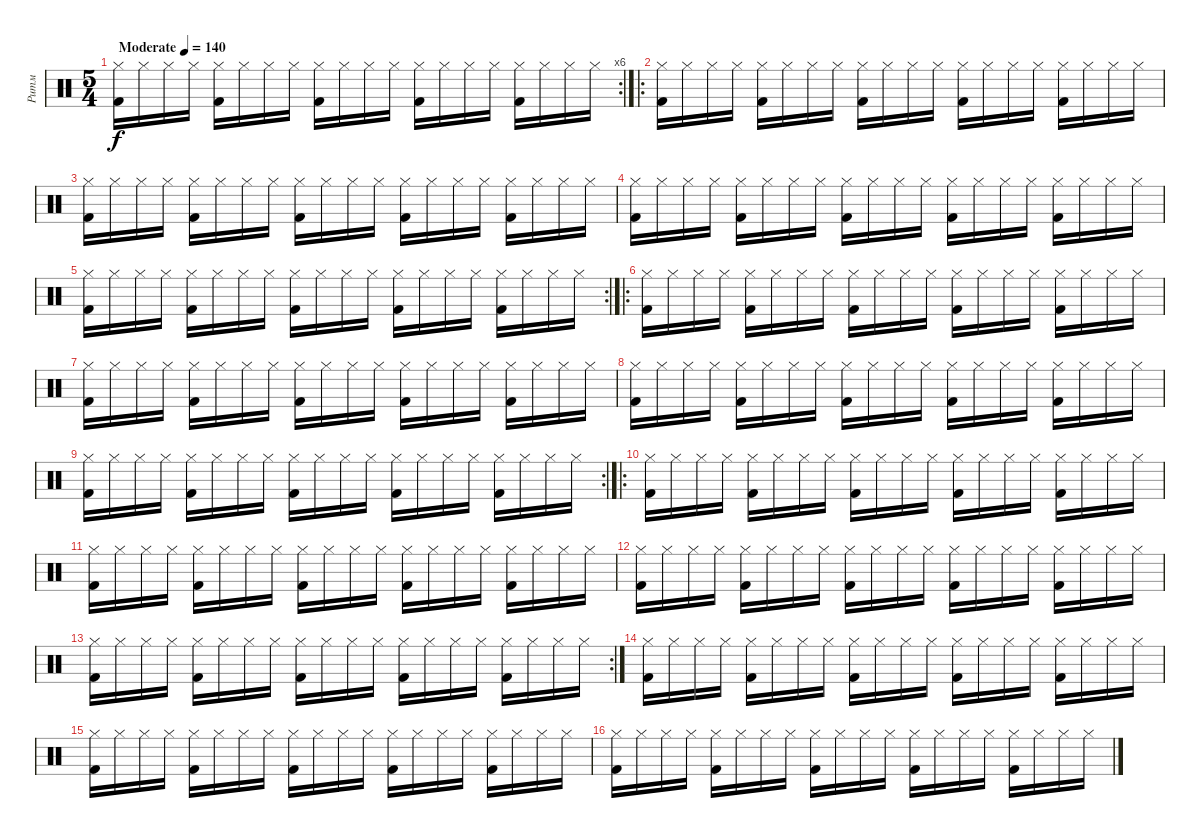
\track ("Ритм" "Ритм") {instrument percussion}
\staff {score}
\articulation defaults
\rc 6
\ts (5 4)
\tempo (140 "Moderate")
\clef neutral
\ks c
("Hi-Hat (closed)" "Kick (hit) 2").16{dy f} "Hi-Hat (closed)".16 "Hi-Hat (closed)".16 "Hi-Hat (closed)".16 ("Hi-Hat (closed)" "Kick (hit) 2").16 "Hi-Hat (closed)".16 "Hi-Hat (closed)".16 "Hi-Hat (closed)".16 ("Hi-Hat (closed)" "Kick (hit) 2").16 "Hi-Hat (closed)".16 "Hi-Hat (closed)".16 "Hi-Hat (closed)".16 ("Hi-Hat (closed)" "Kick (hit) 2").16 "Hi-Hat (closed)".16 "Hi-Hat (closed)".16 "Hi-Hat (closed)".16 ("Hi-Hat (closed)" "Kick (hit) 2").16 "Hi-Hat (closed)".16 "Hi-Hat (closed)".16 "Hi-Hat (closed)".16 |
\ro
("Hi-Hat (closed)" "Kick (hit) 2").16 "Hi-Hat (closed)".16 "Hi-Hat (closed)".16 "Hi-Hat (closed)".16 ("Hi-Hat (closed)" "Kick (hit) 2").16 "Hi-Hat (closed)".16 "Hi-Hat (closed)".16 "Hi-Hat (closed)".16 ("Hi-Hat (closed)" "Kick (hit) 2").16 "Hi-Hat (closed)".16 "Hi-Hat (closed)".16 "Hi-Hat (closed)".16 ("Hi-Hat (closed)" "Kick (hit) 2").16 "Hi-Hat (closed)".16 "Hi-Hat (closed)".16 "Hi-Hat (closed)".16 ("Hi-Hat (closed)" "Kick (hit) 2").16 "Hi-Hat (closed)".16 "Hi-Hat (closed)".16 "Hi-Hat (closed)".16 |
("Hi-Hat (closed)" "Kick (hit) 2").16 "Hi-Hat (closed)".16 "Hi-Hat (closed)".16 "Hi-Hat (closed)".16 ("Hi-Hat (closed)" "Kick (hit) 2").16 "Hi-Hat (closed)".16 "Hi-Hat (closed)".16 "Hi-Hat (closed)".16 ("Hi-Hat (closed)" "Kick (hit) 2").16 "Hi-Hat (closed)".16 "Hi-Hat (closed)".16 "Hi-Hat (closed)".16 ("Hi-Hat (closed)" "Kick (hit) 2").16 "Hi-Hat (closed)".16 "Hi-Hat (closed)".16 "Hi-Hat (closed)".16 ("Hi-Hat (closed)" "Kick (hit) 2").16 "Hi-Hat (closed)".16 "Hi-Hat (closed)".16 "Hi-Hat (closed)".16 |
("Hi-Hat (closed)" "Kick (hit) 2").16 "Hi-Hat (closed)".16 "Hi-Hat (closed)".16 "Hi-Hat (closed)".16 ("Hi-Hat (closed)" "Kick (hit) 2").16 "Hi-Hat (closed)".16 "Hi-Hat (closed)".16 "Hi-Hat (closed)".16 ("Hi-Hat (closed)" "Kick (hit) 2").16 "Hi-Hat (closed)".16 "Hi-Hat (closed)".16 "Hi-Hat (closed)".16 ("Hi-Hat (closed)" "Kick (hit) 2").16 "Hi-Hat (closed)".16 "Hi-Hat (closed)".16 "Hi-Hat (closed)".16 ("Hi-Hat (closed)" "Kick (hit) 2").16 "Hi-Hat (closed)".16 "Hi-Hat (closed)".16 "Hi-Hat (closed)".16 |
\rc 2
("Hi-Hat (closed)" "Kick (hit) 2").16 "Hi-Hat (closed)".16 "Hi-Hat (closed)".16 "Hi-Hat (closed)".16 ("Hi-Hat (closed)" "Kick (hit) 2").16 "Hi-Hat (closed)".16 "Hi-Hat (closed)".16 "Hi-Hat (closed)".16 ("Hi-Hat (closed)" "Kick (hit) 2").16 "Hi-Hat (closed)".16 "Hi-Hat (closed)".16 "Hi-Hat (closed)".16 ("Hi-Hat (closed)" "Kick (hit) 2").16 "Hi-Hat (closed)".16 "Hi-Hat (closed)".16 "Hi-Hat (closed)".16 ("Hi-Hat (closed)" "Kick (hit) 2").16 "Hi-Hat (closed)".16 "Hi-Hat (closed)".16 "Hi-Hat (closed)".16 |
\ro
("Hi-Hat (closed)" "Kick (hit) 2").16 "Hi-Hat (closed)".16 "Hi-Hat (closed)".16 "Hi-Hat (closed)".16 ("Hi-Hat (closed)" "Kick (hit) 2").16 "Hi-Hat (closed)".16 "Hi-Hat (closed)".16 "Hi-Hat (closed)".16 ("Hi-Hat (closed)" "Kick (hit) 2").16 "Hi-Hat (closed)".16 "Hi-Hat (closed)".16 "Hi-Hat (closed)".16 ("Hi-Hat (closed)" "Kick (hit) 2").16 "Hi-Hat (closed)".16 "Hi-Hat (closed)".16 "Hi-Hat (closed)".16 ("Hi-Hat (closed)" "Kick (hit) 2").16 "Hi-Hat (closed)".16 "Hi-Hat (closed)".16 "Hi-Hat (closed)".16 |
("Hi-Hat (closed)" "Kick (hit) 2").16 "Hi-Hat (closed)".16 "Hi-Hat (closed)".16 "Hi-Hat (closed)".16 ("Hi-Hat (closed)" "Kick (hit) 2").16 "Hi-Hat (closed)".16 "Hi-Hat (closed)".16 "Hi-Hat (closed)".16 ("Hi-Hat (closed)" "Kick (hit) 2").16 "Hi-Hat (closed)".16 "Hi-Hat (closed)".16 "Hi-Hat (closed)".16 ("Hi-Hat (closed)" "Kick (hit) 2").16 "Hi-Hat (closed)".16 "Hi-Hat (closed)".16 "Hi-Hat (closed)".16 ("Hi-Hat (closed)" "Kick (hit) 2").16 "Hi-Hat (closed)".16 "Hi-Hat (closed)".16 "Hi-Hat (closed)".16 |
("Hi-Hat (closed)" "Kick (hit) 2").16 "Hi-Hat (closed)".16 "Hi-Hat (closed)".16 "Hi-Hat (closed)".16 ("Hi-Hat (closed)" "Kick (hit) 2").16 "Hi-Hat (closed)".16 "Hi-Hat (closed)".16 "Hi-Hat (closed)".16 ("Hi-Hat (closed)" "Kick (hit) 2").16 "Hi-Hat (closed)".16 "Hi-Hat (closed)".16 "Hi-Hat (closed)".16 ("Hi-Hat (closed)" "Kick (hit) 2").16 "Hi-Hat (closed)".16 "Hi-Hat (closed)".16 "Hi-Hat (closed)".16 ("Hi-Hat (closed)" "Kick (hit) 2").16 "Hi-Hat (closed)".16 "Hi-Hat (closed)".16 "Hi-Hat (closed)".16 |
\rc 2
("Hi-Hat (closed)" "Kick (hit) 2").16 "Hi-Hat (closed)".16 "Hi-Hat (closed)".16 "Hi-Hat (closed)".16 ("Hi-Hat (closed)" "Kick (hit) 2").16 "Hi-Hat (closed)".16 "Hi-Hat (closed)".16 "Hi-Hat (closed)".16 ("Hi-Hat (closed)" "Kick (hit) 2").16 "Hi-Hat (closed)".16 "Hi-Hat (closed)".16 "Hi-Hat (closed)".16 ("Hi-Hat (closed)" "Kick (hit) 2").16 "Hi-Hat (closed)".16 "Hi-Hat (closed)".16 "Hi-Hat (closed)".16 ("Hi-Hat (closed)" "Kick (hit) 2").16 "Hi-Hat (closed)".16 "Hi-Hat (closed)".16 "Hi-Hat (closed)".16 |
\ro
("Hi-Hat (closed)" "Kick (hit) 2").16 "Hi-Hat (closed)".16 "Hi-Hat (closed)".16 "Hi-Hat (closed)".16 ("Hi-Hat (closed)" "Kick (hit) 2").16 "Hi-Hat (closed)".16 "Hi-Hat (closed)".16 "Hi-Hat (closed)".16 ("Hi-Hat (closed)" "Kick (hit) 2").16 "Hi-Hat (closed)".16 "Hi-Hat (closed)".16 "Hi-Hat (closed)".16 ("Hi-Hat (closed)" "Kick (hit) 2").16 "Hi-Hat (closed)".16 "Hi-Hat (closed)".16 "Hi-Hat (closed)".16 ("Hi-Hat (closed)" "Kick (hit) 2").16 "Hi-Hat (closed)".16 "Hi-Hat (closed)".16 "Hi-Hat (closed)".16 |
("Hi-Hat (closed)" "Kick (hit) 2").16 "Hi-Hat (closed)".16 "Hi-Hat (closed)".16 "Hi-Hat (closed)".16 ("Hi-Hat (closed)" "Kick (hit) 2").16 "Hi-Hat (closed)".16 "Hi-Hat (closed)".16 "Hi-Hat (closed)".16 ("Hi-Hat (closed)" "Kick (hit) 2").16 "Hi-Hat (closed)".16 "Hi-Hat (closed)".16 "Hi-Hat (closed)".16 ("Hi-Hat (closed)" "Kick (hit) 2").16 "Hi-Hat (closed)".16 "Hi-Hat (closed)".16 "Hi-Hat (closed)".16 ("Hi-Hat (closed)" "Kick (hit) 2").16 "Hi-Hat (closed)".16 "Hi-Hat (closed)".16 "Hi-Hat (closed)".16 |
("Hi-Hat (closed)" "Kick (hit) 2").16 "Hi-Hat (closed)".16 "Hi-Hat (closed)".16 "Hi-Hat (closed)".16 ("Hi-Hat (closed)" "Kick (hit) 2").16 "Hi-Hat (closed)".16 "Hi-Hat (closed)".16 "Hi-Hat (closed)".16 ("Hi-Hat (closed)" "Kick (hit) 2").16 "Hi-Hat (closed)".16 "Hi-Hat (closed)".16 "Hi-Hat (closed)".16 ("Hi-Hat (closed)" "Kick (hit) 2").16 "Hi-Hat (closed)".16 "Hi-Hat (closed)".16 "Hi-Hat (closed)".16 ("Hi-Hat (closed)" "Kick (hit) 2").16 "Hi-Hat (closed)".16 "Hi-Hat (closed)".16 "Hi-Hat (closed)".16 |
\rc 2
("Hi-Hat (closed)" "Kick (hit) 2").16 "Hi-Hat (closed)".16 "Hi-Hat (closed)".16 "Hi-Hat (closed)".16 ("Hi-Hat (closed)" "Kick (hit) 2").16 "Hi-Hat (closed)".16 "Hi-Hat (closed)".16 "Hi-Hat (closed)".16 ("Hi-Hat (closed)" "Kick (hit) 2").16 "Hi-Hat (closed)".16 "Hi-Hat (closed)".16 "Hi-Hat (closed)".16 ("Hi-Hat (closed)" "Kick (hit) 2").16 "Hi-Hat (closed)".16 "Hi-Hat (closed)".16 "Hi-Hat (closed)".16 ("Hi-Hat (closed)" "Kick (hit) 2").16 "Hi-Hat (closed)".16 "Hi-Hat (closed)".16 "Hi-Hat (closed)".16 |
("Hi-Hat (closed)" "Kick (hit) 2").16 "Hi-Hat (closed)".16 "Hi-Hat (closed)".16 "Hi-Hat (closed)".16 ("Hi-Hat (closed)" "Kick (hit) 2").16 "Hi-Hat (closed)".16 "Hi-Hat (closed)".16 "Hi-Hat (closed)".16 ("Hi-Hat (closed)" "Kick (hit) 2").16 "Hi-Hat (closed)".16 "Hi-Hat (closed)".16 "Hi-Hat (closed)".16 ("Hi-Hat (closed)" "Kick (hit) 2").16 "Hi-Hat (closed)".16 "Hi-Hat (closed)".16 "Hi-Hat (closed)".16 ("Hi-Hat (closed)" "Kick (hit) 2").16 "Hi-Hat (closed)".16 "Hi-Hat (closed)".16 "Hi-Hat (closed)".16 |
("Hi-Hat (closed)" "Kick (hit) 2").16 "Hi-Hat (closed)".16 "Hi-Hat (closed)".16 "Hi-Hat (closed)".16 ("Hi-Hat (closed)" "Kick (hit) 2").16 "Hi-Hat (closed)".16 "Hi-Hat (closed)".16 "Hi-Hat (closed)".16 ("Hi-Hat (closed)" "Kick (hit) 2").16 "Hi-Hat (closed)".16 "Hi-Hat (closed)".16 "Hi-Hat (closed)".16 ("Hi-Hat (closed)" "Kick (hit) 2").16 "Hi-Hat (closed)".16 "Hi-Hat (closed)".16 "Hi-Hat (closed)".16 ("Hi-Hat (closed)" "Kick (hit) 2").16 "Hi-Hat (closed)".16 "Hi-Hat (closed)".16 "Hi-Hat (closed)".16 |
("Hi-Hat (closed)" "Kick (hit) 2").16 "Hi-Hat (closed)".16 "Hi-Hat (closed)".16 "Hi-Hat (closed)".16 ("Hi-Hat (closed)" "Kick (hit) 2").16 "Hi-Hat (closed)".16 "Hi-Hat (closed)".16 "Hi-Hat (closed)".16 ("Hi-Hat (closed)" "Kick (hit) 2").16 "Hi-Hat (closed)".16 "Hi-Hat (closed)".16 "Hi-Hat (closed)".16 ("Hi-Hat (closed)" "Kick (hit) 2").16 "Hi-Hat (closed)".16 "Hi-Hat (closed)".16 "Hi-Hat (closed)".16 ("Hi-Hat (closed)" "Kick (hit) 2").16 "Hi-Hat (closed)".16 "Hi-Hat (closed)".16 "Hi-Hat (closed)".16
